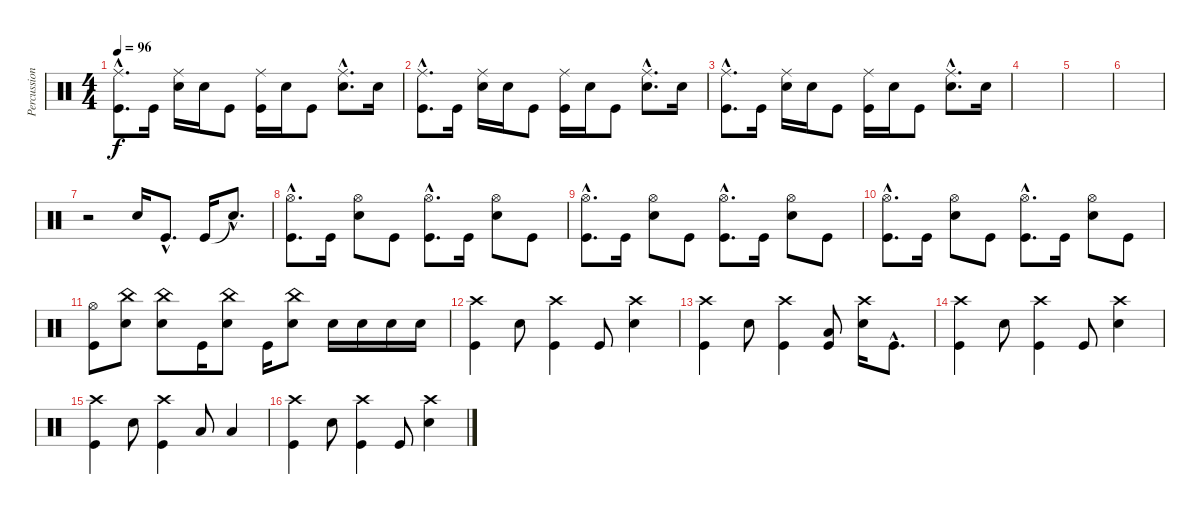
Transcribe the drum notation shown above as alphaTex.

\track ("Percussion" "Percussion") {instrument percussion}
\staff {score}
\articulation defaults
\ts (4 4)
\tempo 96
\clef neutral
\ks c
("Ride (middle)"{hac} "Kick (hit)"{hac}).8{d dy f} "Kick (hit)".16 ("Ride (middle)" "Electric Snare (hit)").16 "Electric Snare (hit)".16 "Kick (hit)".8 ("Ride (middle)" "Kick (hit)").16 "Electric Snare (hit)".16 "Kick (hit)".8 ("Ride (middle)"{hac} "Electric Snare (hit)"{hac}).8{d} "Electric Snare (hit)".16 |
("Ride (middle)"{hac} "Kick (hit)"{hac}).8{d} "Kick (hit)".16 ("Ride (middle)" "Electric Snare (hit)").16 "Electric Snare (hit)".16 "Kick (hit)".8 ("Ride (middle)" "Kick (hit)").16 "Electric Snare (hit)".16 "Kick (hit)".8 ("Ride (middle)"{hac} "Electric Snare (hit)"{hac}).8{d} "Electric Snare (hit)".16 |
("Ride (middle)"{hac} "Kick (hit)"{hac}).8{d} "Kick (hit)".16 ("Ride (middle)" "Electric Snare (hit)").16 "Electric Snare (hit)".16 "Kick (hit)".8 ("Ride (middle)" "Kick (hit)").16 "Electric Snare (hit)".16 "Kick (hit)".8 ("Ride (middle)"{hac} "Electric Snare (hit)"{hac}).8{d} "Electric Snare (hit)".16 |
|
|
|
r.2 "Electric Snare (hit)".16 "Kick (hit)"{hac}.8{d} "Kick (hit)".16 "Snare (hit)"{hac t}.8{d} |
("Hi-Hat (open)"{hac} "Kick (hit)"{hac}).8{d} "Kick (hit)".16 ("Hi-Hat (open)" "Electric Snare (hit)").8 "Kick (hit)".8 ("Hi-Hat (open)"{hac} "Kick (hit)"{hac}).8{d} "Kick (hit)".16 ("Hi-Hat (open)" "Electric Snare (hit)").8 "Kick (hit)".8 |
("Hi-Hat (open)"{hac} "Kick (hit)"{hac}).8{d} "Kick (hit)".16 ("Hi-Hat (open)" "Electric Snare (hit)").8 "Kick (hit)".8 ("Hi-Hat (open)"{hac} "Kick (hit)"{hac}).8{d} "Kick (hit)".16 ("Hi-Hat (open)" "Electric Snare (hit)").8 "Kick (hit)".8 |
("Hi-Hat (open)"{hac} "Kick (hit)"{hac}).8{d} "Kick (hit)".16 ("Hi-Hat (open)" "Electric Snare (hit)").8 "Kick (hit)".8 ("Hi-Hat (open)"{hac} "Kick (hit)"{hac}).8{d} "Kick (hit)".16 ("Hi-Hat (open)" "Electric Snare (hit)").8 "Kick (hit)".8 |
("Hi-Hat (open)" "Kick (hit)").8 ("China (hit)" "Electric Snare (hit)").8 ("China (hit)" "Electric Snare (hit)").8 "Kick (hit)".16 ("China (hit)" "Electric Snare (hit)").8 "Kick (hit)".16 ("China (hit)" "Electric Snare (hit)").8 "Electric Snare (hit)".16 "Electric Snare (hit)".16 "Electric Snare (hit)".16 "Electric Snare (hit)".16 |
("Crash high (hit)" "Kick (hit)").4 "Electric Snare (hit)".8 ("Crash high (hit)" "Kick (hit)").4 "Kick (hit)".8 ("Crash high (hit)" "Electric Snare (hit)").4 |
("Crash high (hit)" "Kick (hit)").4 "Electric Snare (hit)".8 ("Crash high (hit)" "Kick (hit)").4 ("Low Tom (hit)" "Kick (hit)").8 ("Crash high (hit)" "Electric Snare (hit)").16 "Kick (hit)"{hac}.8{d} |
("Crash high (hit)" "Kick (hit)").4 "Electric Snare (hit)".8 ("Crash high (hit)" "Kick (hit)").4 "Kick (hit)".8 ("Crash high (hit)" "Electric Snare (hit)").4 |
("Crash high (hit)" "Kick (hit)").4 "Electric Snare (hit)".8 ("Crash high (hit)" "Kick (hit)").4 "Low Tom (hit)".8 "Low Tom (hit)".4 |
("Crash high (hit)" "Kick (hit)").4 "Electric Snare (hit)".8 ("Crash high (hit)" "Kick (hit)").4 "Kick (hit)".8 ("Crash high (hit)" "Electric Snare (hit)").4
